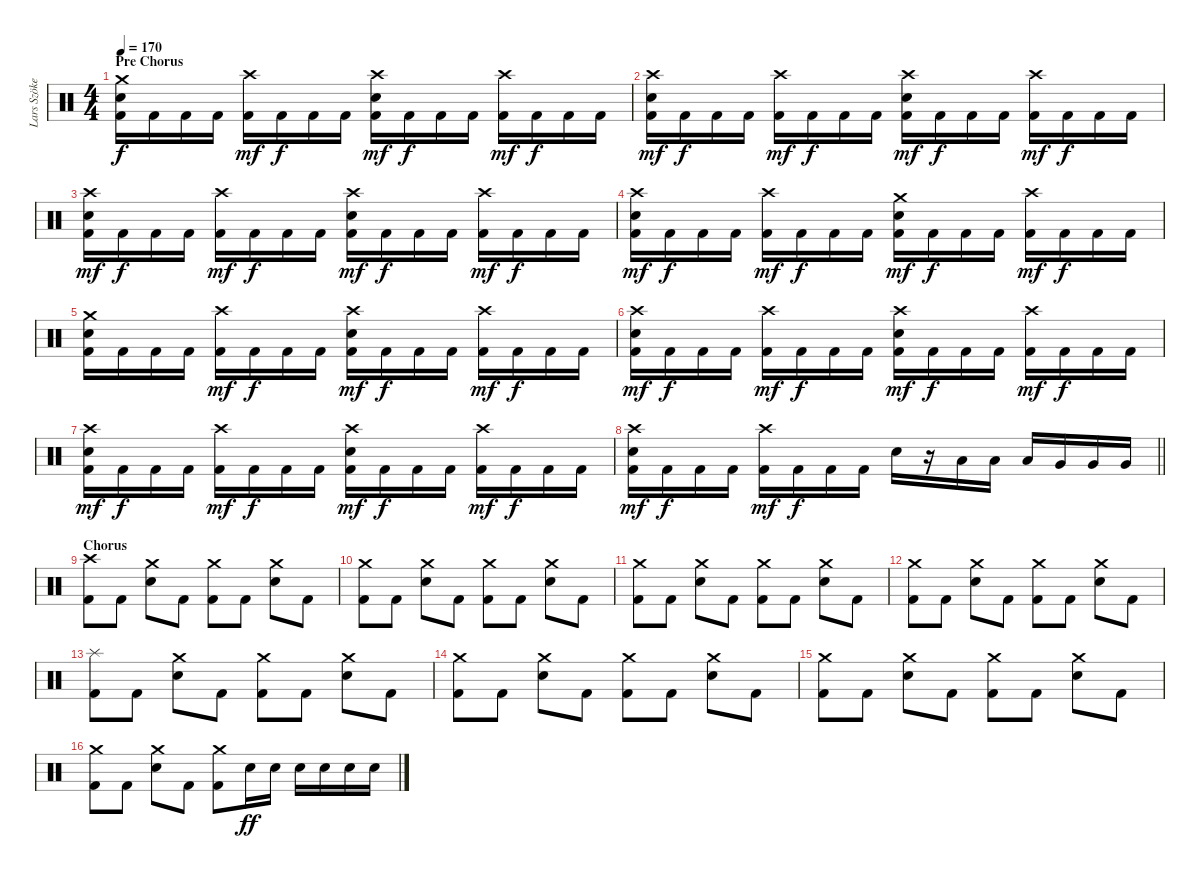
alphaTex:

\track ("Lars Szöke" "Lars Szöke") {instrument percussion}
\staff {score}
\articulation defaults
\ts (4 4)
\section ("" "Pre Chorus")
\tempo 170
\clef neutral
\ks c
("Crash medium (hit)" "Snare (hit) 2" "Kick (hit) 2").16{dy f} "Kick (hit) 2".16 "Kick (hit) 2".16 "Kick (hit) 2".16 ("Crash high (hit)" "Kick (hit) 2").16{dy mf} "Kick (hit) 2".16{dy f} "Kick (hit) 2".16 "Kick (hit) 2".16 ("Crash high (hit)" "Snare (hit) 2" "Kick (hit) 2").16{dy mf} "Kick (hit) 2".16{dy f} "Kick (hit) 2".16 "Kick (hit) 2".16 ("Crash high (hit)" "Kick (hit) 2").16{dy mf} "Kick (hit) 2".16{dy f} "Kick (hit) 2".16 "Kick (hit) 2".16 |
("Crash high (hit)" "Snare (hit) 2" "Kick (hit) 2").16{dy mf} "Kick (hit) 2".16{dy f} "Kick (hit) 2".16 "Kick (hit) 2".16 ("Crash high (hit)" "Kick (hit) 2").16{dy mf} "Kick (hit) 2".16{dy f} "Kick (hit) 2".16 "Kick (hit) 2".16 ("Crash high (hit)" "Snare (hit) 2" "Kick (hit) 2").16{dy mf} "Kick (hit) 2".16{dy f} "Kick (hit) 2".16 "Kick (hit) 2".16 ("Crash high (hit)" "Kick (hit) 2").16{dy mf} "Kick (hit) 2".16{dy f} "Kick (hit) 2".16 "Kick (hit) 2".16 |
("Crash high (hit)" "Snare (hit) 2" "Kick (hit) 2").16{dy mf} "Kick (hit) 2".16{dy f} "Kick (hit) 2".16 "Kick (hit) 2".16 ("Crash high (hit)" "Kick (hit) 2").16{dy mf} "Kick (hit) 2".16{dy f} "Kick (hit) 2".16 "Kick (hit) 2".16 ("Crash high (hit)" "Snare (hit) 2" "Kick (hit) 2").16{dy mf} "Kick (hit) 2".16{dy f} "Kick (hit) 2".16 "Kick (hit) 2".16 ("Crash high (hit)" "Kick (hit) 2").16{dy mf} "Kick (hit) 2".16{dy f} "Kick (hit) 2".16 "Kick (hit) 2".16 |
("Crash high (hit)" "Snare (hit) 2" "Kick (hit) 2").16{dy mf} "Kick (hit) 2".16{dy f} "Kick (hit) 2".16 "Kick (hit) 2".16 ("Crash high (hit)" "Kick (hit) 2").16{dy mf} "Kick (hit) 2".16{dy f} "Kick (hit) 2".16 "Kick (hit) 2".16 ("Crash medium (hit)" "Snare (hit) 2" "Kick (hit) 2").16{dy mf} "Kick (hit) 2".16{dy f} "Kick (hit) 2".16 "Kick (hit) 2".16 ("Crash high (hit)" "Kick (hit) 2").16{dy mf} "Kick (hit) 2".16{dy f} "Kick (hit) 2".16 "Kick (hit) 2".16 |
("Crash medium (hit)" "Snare (hit) 2" "Kick (hit) 2").16 "Kick (hit) 2".16 "Kick (hit) 2".16 "Kick (hit) 2".16 ("Crash high (hit)" "Kick (hit) 2").16{dy mf} "Kick (hit) 2".16{dy f} "Kick (hit) 2".16 "Kick (hit) 2".16 ("Crash high (hit)" "Snare (hit) 2" "Kick (hit) 2").16{dy mf} "Kick (hit) 2".16{dy f} "Kick (hit) 2".16 "Kick (hit) 2".16 ("Crash high (hit)" "Kick (hit) 2").16{dy mf} "Kick (hit) 2".16{dy f} "Kick (hit) 2".16 "Kick (hit) 2".16 |
("Crash high (hit)" "Snare (hit) 2" "Kick (hit) 2").16{dy mf} "Kick (hit) 2".16{dy f} "Kick (hit) 2".16 "Kick (hit) 2".16 ("Crash high (hit)" "Kick (hit) 2").16{dy mf} "Kick (hit) 2".16{dy f} "Kick (hit) 2".16 "Kick (hit) 2".16 ("Crash high (hit)" "Snare (hit) 2" "Kick (hit) 2").16{dy mf} "Kick (hit) 2".16{dy f} "Kick (hit) 2".16 "Kick (hit) 2".16 ("Crash high (hit)" "Kick (hit) 2").16{dy mf} "Kick (hit) 2".16{dy f} "Kick (hit) 2".16 "Kick (hit) 2".16 |
("Crash high (hit)" "Snare (hit) 2" "Kick (hit) 2").16{dy mf} "Kick (hit) 2".16{dy f} "Kick (hit) 2".16 "Kick (hit) 2".16 ("Crash high (hit)" "Kick (hit) 2").16{dy mf} "Kick (hit) 2".16{dy f} "Kick (hit) 2".16 "Kick (hit) 2".16 ("Crash high (hit)" "Snare (hit) 2" "Kick (hit) 2").16{dy mf} "Kick (hit) 2".16{dy f} "Kick (hit) 2".16 "Kick (hit) 2".16 ("Crash high (hit)" "Kick (hit) 2").16{dy mf} "Kick (hit) 2".16{dy f} "Kick (hit) 2".16 "Kick (hit) 2".16 |
\barLineRight lightlight
("Crash high (hit)" "Snare (hit) 2" "Kick (hit) 2").16{dy mf} "Kick (hit) 2".16{dy f} "Kick (hit) 2".16 "Kick (hit) 2".16 ("Crash high (hit)" "Kick (hit) 2").16{dy mf} "Kick (hit) 2".16{dy f} "Kick (hit) 2".16 "Kick (hit) 2".16 "Snare (hit) 2".16 r.16 "Low Tom (hit)".16 "Low Tom (hit)".16 "Low Tom (hit)".16 "Very Low Tom (hit)".16 "Very Low Tom (hit)".16 "Very Low Tom (hit)".16 |
\section ("" "Chorus")
("Crash high (hit)" "Kick (hit) 2").8 "Kick (hit) 2".8 ("Crash medium (hit)" "Snare (hit) 2").8 "Kick (hit) 2".8 ("Crash medium (hit)" "Kick (hit) 2").8 "Kick (hit) 2".8 ("Crash medium (hit)" "Snare (hit) 2").8 "Kick (hit) 2".8 |
("Crash medium (hit)" "Kick (hit) 2").8 "Kick (hit) 2".8 ("Crash medium (hit)" "Snare (hit) 2").8 "Kick (hit) 2".8 ("Crash medium (hit)" "Kick (hit) 2").8 "Kick (hit) 2".8 ("Crash medium (hit)" "Snare (hit) 2").8 "Kick (hit) 2".8 |
("Crash medium (hit)" "Kick (hit) 2").8 "Kick (hit) 2".8 ("Crash medium (hit)" "Snare (hit) 2").8 "Kick (hit) 2".8 ("Crash medium (hit)" "Kick (hit) 2").8 "Kick (hit) 2".8 ("Crash medium (hit)" "Snare (hit) 2").8 "Kick (hit) 2".8 |
("Crash medium (hit)" "Kick (hit) 2").8 "Kick (hit) 2".8 ("Crash medium (hit)" "Snare (hit) 2").8 "Kick (hit) 2".8 ("Crash medium (hit)" "Kick (hit) 2").8 "Kick (hit) 2".8 ("Crash medium (hit)" "Snare (hit) 2").8 "Kick (hit) 2".8 |
("Splash (hit)" "Kick (hit) 2").8 "Kick (hit) 2".8 ("Crash medium (hit)" "Snare (hit) 2").8 "Kick (hit) 2".8 ("Crash medium (hit)" "Kick (hit) 2").8 "Kick (hit) 2".8 ("Crash medium (hit)" "Snare (hit) 2").8 "Kick (hit) 2".8 |
("Crash medium (hit)" "Kick (hit) 2").8 "Kick (hit) 2".8 ("Crash medium (hit)" "Snare (hit) 2").8 "Kick (hit) 2".8 ("Crash medium (hit)" "Kick (hit) 2").8 "Kick (hit) 2".8 ("Crash medium (hit)" "Snare (hit) 2").8 "Kick (hit) 2".8 |
("Crash medium (hit)" "Kick (hit) 2").8 "Kick (hit) 2".8 ("Crash medium (hit)" "Snare (hit) 2").8 "Kick (hit) 2".8 ("Crash medium (hit)" "Kick (hit) 2").8 "Kick (hit) 2".8 ("Crash medium (hit)" "Snare (hit) 2").8 "Kick (hit) 2".8 |
("Crash medium (hit)" "Kick (hit) 2").8 "Kick (hit) 2".8 ("Crash medium (hit)" "Snare (hit) 2").8 "Kick (hit) 2".8 ("Crash medium (hit)" "Kick (hit) 2").8 "Snare (hit) 2".16{dy ff} "Snare (hit) 2".16 "Snare (hit) 2".16 "Snare (hit) 2".16 "Snare (hit) 2".16 "Snare (hit) 2".16
